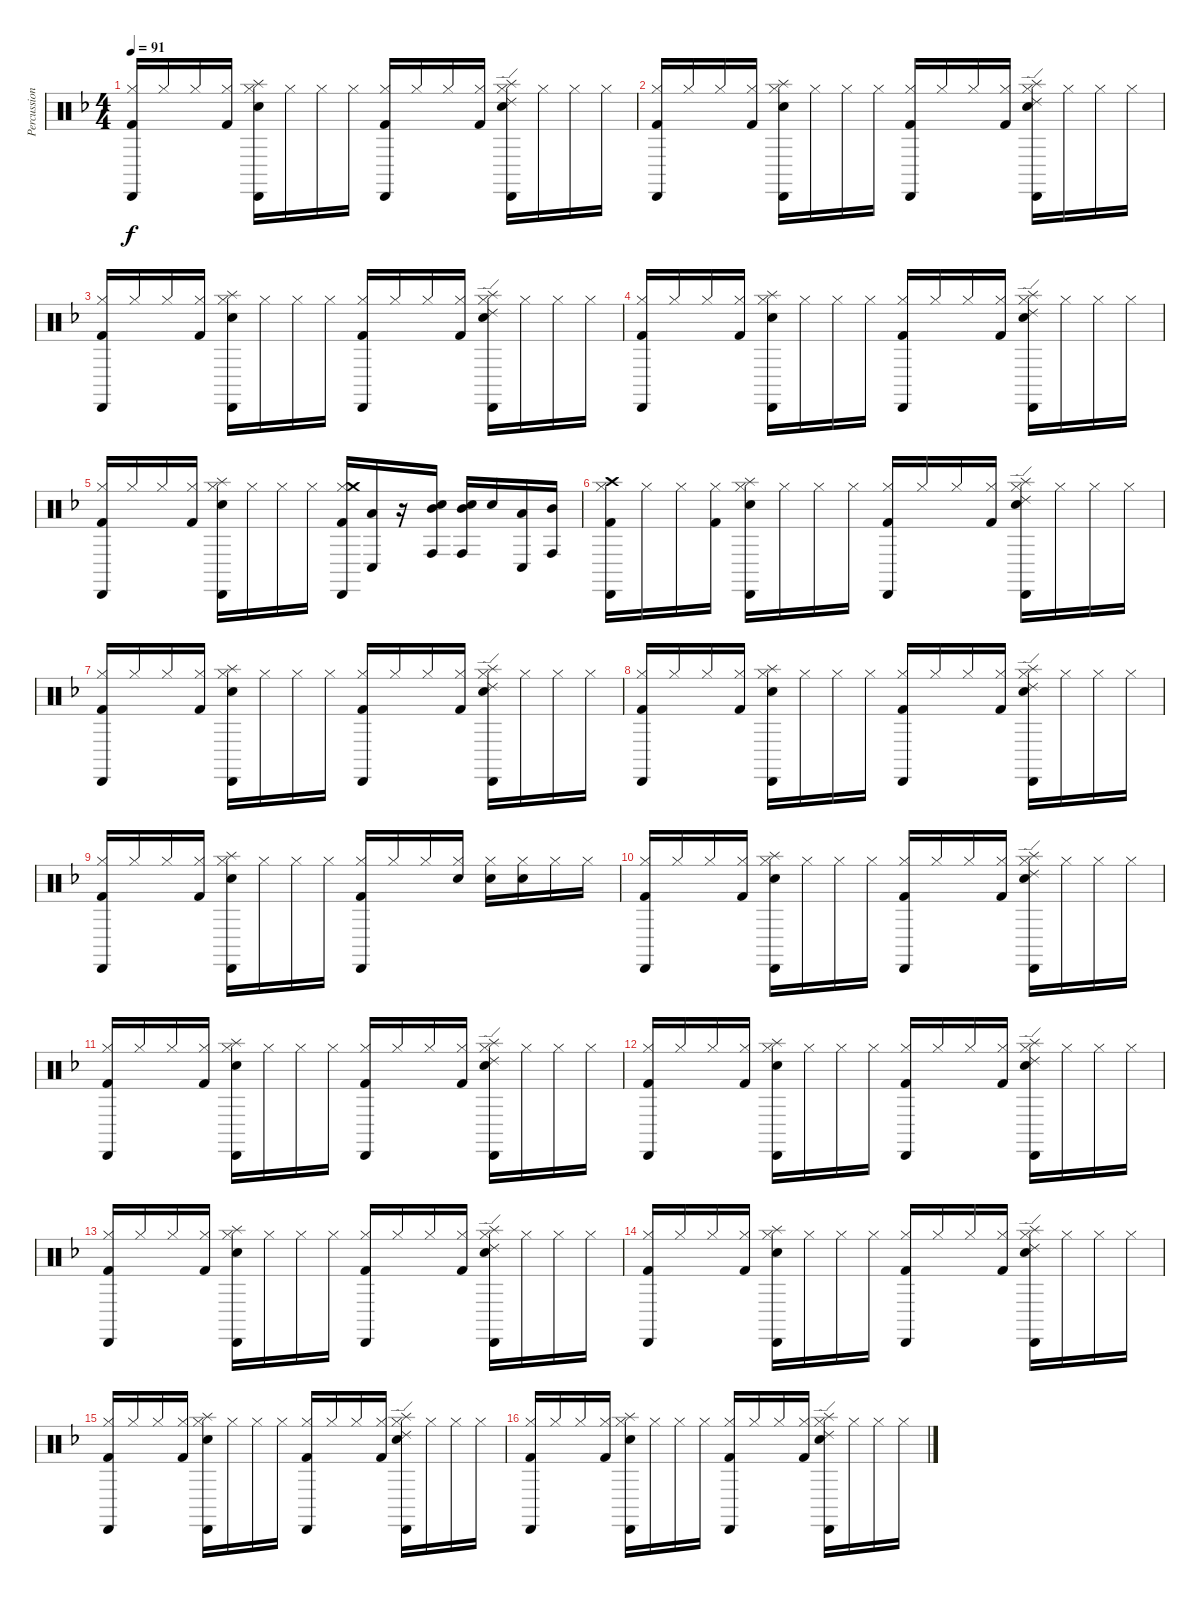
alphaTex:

\track ("Percussion" "Percussion") {instrument percussion}
\staff {score}
\articulation defaults
\ts (4 4)
\tempo 91
\clef neutral
\ks dminor
("Hi-Hat (closed)" "Kick (hit) 2" "Cabasa (hit)").16{dy f volume 12} "Hi-Hat (closed)".16 "Hi-Hat (closed)".16 ("Hi-Hat (closed)" "Kick (hit) 2").16 ("Hi-Hat (closed)" "Snare (hit) 2" "Cabasa (hit)" "Splash (hit)").16 "Hi-Hat (closed)".16 "Hi-Hat (closed)".16 "Hi-Hat (closed)".16 ("Hi-Hat (closed)" "Kick (hit) 2" "Cabasa (hit)").16 "Hi-Hat (closed)".16 "Hi-Hat (closed)".16 ("Hi-Hat (closed)" "Kick (hit) 2").16 ("Hi-Hat (closed)" "Snare (hit) 2" "Cabasa (hit)" "Ride (edge) 2" "Splash (hit)").16 "Hi-Hat (closed)".16 "Hi-Hat (closed)".16 "Hi-Hat (closed)".16 |
("Hi-Hat (closed)" "Kick (hit) 2" "Cabasa (hit)").16{volume 12} "Hi-Hat (closed)".16 "Hi-Hat (closed)".16 ("Hi-Hat (closed)" "Kick (hit) 2").16 ("Hi-Hat (closed)" "Snare (hit) 2" "Cabasa (hit)" "Splash (hit)").16 "Hi-Hat (closed)".16 "Hi-Hat (closed)".16 "Hi-Hat (closed)".16 ("Hi-Hat (closed)" "Kick (hit) 2" "Cabasa (hit)").16 "Hi-Hat (closed)".16 "Hi-Hat (closed)".16 ("Hi-Hat (closed)" "Kick (hit) 2").16 ("Hi-Hat (closed)" "Snare (hit) 2" "Cabasa (hit)" "Ride (edge) 2" "Splash (hit)").16 "Hi-Hat (closed)".16 "Hi-Hat (closed)".16 "Hi-Hat (closed)".16 |
("Hi-Hat (closed)" "Kick (hit) 2" "Cabasa (hit)").16{volume 12} "Hi-Hat (closed)".16 "Hi-Hat (closed)".16 ("Hi-Hat (closed)" "Kick (hit) 2").16 ("Hi-Hat (closed)" "Snare (hit) 2" "Cabasa (hit)" "Splash (hit)").16 "Hi-Hat (closed)".16 "Hi-Hat (closed)".16 "Hi-Hat (closed)".16 ("Hi-Hat (closed)" "Kick (hit) 2" "Cabasa (hit)").16 "Hi-Hat (closed)".16 "Hi-Hat (closed)".16 ("Hi-Hat (closed)" "Kick (hit) 2").16 ("Hi-Hat (closed)" "Snare (hit) 2" "Cabasa (hit)" "Ride (edge) 2" "Splash (hit)").16 "Hi-Hat (closed)".16 "Hi-Hat (closed)".16 "Hi-Hat (closed)".16 |
("Hi-Hat (closed)" "Kick (hit) 2" "Cabasa (hit)").16{volume 12} "Hi-Hat (closed)".16 "Hi-Hat (closed)".16 ("Hi-Hat (closed)" "Kick (hit) 2").16 ("Hi-Hat (closed)" "Snare (hit) 2" "Cabasa (hit)" "Splash (hit)").16 "Hi-Hat (closed)".16 "Hi-Hat (closed)".16 "Hi-Hat (closed)".16 ("Hi-Hat (closed)" "Kick (hit) 2" "Cabasa (hit)").16 "Hi-Hat (closed)".16 "Hi-Hat (closed)".16 ("Hi-Hat (closed)" "Kick (hit) 2").16 ("Hi-Hat (closed)" "Snare (hit) 2" "Cabasa (hit)" "Ride (edge) 2" "Splash (hit)").16 "Hi-Hat (closed)".16 "Hi-Hat (closed)".16 "Hi-Hat (closed)".16 |
("Hi-Hat (closed)" "Kick (hit) 2" "Cabasa (hit)").16{volume 12} "Hi-Hat (closed)".16 "Hi-Hat (closed)".16 ("Hi-Hat (closed)" "Kick (hit) 2").16 ("Hi-Hat (closed)" "Snare (hit) 2" "Cabasa (hit)" "Splash (hit)").16 "Hi-Hat (closed)".16 "Hi-Hat (closed)".16 "Hi-Hat (closed)".16 ("Hi-Hat (closed)" "Kick (hit) 2" "Cabasa (hit)" "Crash medium (hit)").16 ("Conga low (hit)" "Low Tom (hit)").16 r.16 ("Conga high (hit)" "Mid Tom (hit)" "Snare (hit) 2").16 ("Conga high (hit)" "Mid Tom (hit)" "Snare (hit) 2").16 "Snare (hit) 2".16 ("Conga low (hit)" "Low Tom (hit)").16 ("Conga high (hit)" "Mid Tom (hit)").16 |
("Hi-Hat (closed)" "Kick (hit) 2" "Cabasa (hit)" "Crash high (hit)").16{volume 12} "Hi-Hat (closed)".16 "Hi-Hat (closed)".16 ("Hi-Hat (closed)" "Kick (hit) 2").16 ("Hi-Hat (closed)" "Snare (hit) 2" "Cabasa (hit)" "Splash (hit)").16 "Hi-Hat (closed)".16 "Hi-Hat (closed)".16 "Hi-Hat (closed)".16 ("Hi-Hat (closed)" "Kick (hit) 2" "Cabasa (hit)").16 "Hi-Hat (closed)".16 "Hi-Hat (closed)".16 ("Hi-Hat (closed)" "Kick (hit) 2").16 ("Hi-Hat (closed)" "Snare (hit) 2" "Cabasa (hit)" "Ride (edge) 2" "Splash (hit)").16 "Hi-Hat (closed)".16 "Hi-Hat (closed)".16 "Hi-Hat (closed)".16 |
("Hi-Hat (closed)" "Kick (hit) 2" "Cabasa (hit)").16{volume 12} "Hi-Hat (closed)".16 "Hi-Hat (closed)".16 ("Hi-Hat (closed)" "Kick (hit) 2").16 ("Hi-Hat (closed)" "Snare (hit) 2" "Cabasa (hit)" "Splash (hit)").16 "Hi-Hat (closed)".16 "Hi-Hat (closed)".16 "Hi-Hat (closed)".16 ("Hi-Hat (closed)" "Kick (hit) 2" "Cabasa (hit)").16 "Hi-Hat (closed)".16 "Hi-Hat (closed)".16 ("Hi-Hat (closed)" "Kick (hit) 2").16 ("Hi-Hat (closed)" "Snare (hit) 2" "Cabasa (hit)" "Ride (edge) 2" "Splash (hit)").16 "Hi-Hat (closed)".16 "Hi-Hat (closed)".16 "Hi-Hat (closed)".16 |
("Hi-Hat (closed)" "Kick (hit) 2" "Cabasa (hit)").16{volume 12} "Hi-Hat (closed)".16 "Hi-Hat (closed)".16 ("Hi-Hat (closed)" "Kick (hit) 2").16 ("Hi-Hat (closed)" "Snare (hit) 2" "Cabasa (hit)" "Splash (hit)").16 "Hi-Hat (closed)".16 "Hi-Hat (closed)".16 "Hi-Hat (closed)".16 ("Hi-Hat (closed)" "Kick (hit) 2" "Cabasa (hit)").16 "Hi-Hat (closed)".16 "Hi-Hat (closed)".16 ("Hi-Hat (closed)" "Kick (hit) 2").16 ("Hi-Hat (closed)" "Snare (hit) 2" "Cabasa (hit)" "Ride (edge) 2" "Splash (hit)").16 "Hi-Hat (closed)".16 "Hi-Hat (closed)".16 "Hi-Hat (closed)".16 |
("Hi-Hat (closed)" "Kick (hit) 2" "Cabasa (hit)").16{volume 12} "Hi-Hat (closed)".16 "Hi-Hat (closed)".16 ("Hi-Hat (closed)" "Kick (hit) 2").16 ("Hi-Hat (closed)" "Snare (hit) 2" "Cabasa (hit)" "Splash (hit)").16 "Hi-Hat (closed)".16 "Hi-Hat (closed)".16 "Hi-Hat (closed)".16 ("Hi-Hat (closed)" "Kick (hit) 2" "Cabasa (hit)").16 "Hi-Hat (closed)".16 "Hi-Hat (closed)".16 ("Hi-Hat (closed)" "Snare (hit) 2").16 ("Hi-Hat (closed)" "Snare (hit) 2").16 ("Hi-Hat (closed)" "Snare (hit) 2").16 "Hi-Hat (closed)".16 "Hi-Hat (closed)".16 |
("Hi-Hat (closed)" "Kick (hit) 2" "Cabasa (hit)").16{volume 12} "Hi-Hat (closed)".16 "Hi-Hat (closed)".16 ("Hi-Hat (closed)" "Kick (hit) 2").16 ("Hi-Hat (closed)" "Snare (hit) 2" "Cabasa (hit)" "Splash (hit)").16 "Hi-Hat (closed)".16 "Hi-Hat (closed)".16 "Hi-Hat (closed)".16 ("Hi-Hat (closed)" "Kick (hit) 2" "Cabasa (hit)").16 "Hi-Hat (closed)".16 "Hi-Hat (closed)".16 ("Hi-Hat (closed)" "Kick (hit) 2").16 ("Hi-Hat (closed)" "Snare (hit) 2" "Cabasa (hit)" "Ride (edge) 2" "Splash (hit)").16 "Hi-Hat (closed)".16 "Hi-Hat (closed)".16 "Hi-Hat (closed)".16 |
("Hi-Hat (closed)" "Kick (hit) 2" "Cabasa (hit)").16{volume 12} "Hi-Hat (closed)".16 "Hi-Hat (closed)".16 ("Hi-Hat (closed)" "Kick (hit) 2").16 ("Hi-Hat (closed)" "Snare (hit) 2" "Cabasa (hit)" "Splash (hit)").16 "Hi-Hat (closed)".16 "Hi-Hat (closed)".16 "Hi-Hat (closed)".16 ("Hi-Hat (closed)" "Kick (hit) 2" "Cabasa (hit)").16 "Hi-Hat (closed)".16 "Hi-Hat (closed)".16 ("Hi-Hat (closed)" "Kick (hit) 2").16 ("Hi-Hat (closed)" "Snare (hit) 2" "Cabasa (hit)" "Ride (edge) 2" "Splash (hit)").16 "Hi-Hat (closed)".16 "Hi-Hat (closed)".16 "Hi-Hat (closed)".16 |
("Hi-Hat (closed)" "Kick (hit) 2" "Cabasa (hit)").16{volume 12} "Hi-Hat (closed)".16 "Hi-Hat (closed)".16 ("Hi-Hat (closed)" "Kick (hit) 2").16 ("Hi-Hat (closed)" "Snare (hit) 2" "Cabasa (hit)" "Splash (hit)").16 "Hi-Hat (closed)".16 "Hi-Hat (closed)".16 "Hi-Hat (closed)".16 ("Hi-Hat (closed)" "Kick (hit) 2" "Cabasa (hit)").16 "Hi-Hat (closed)".16 "Hi-Hat (closed)".16 ("Hi-Hat (closed)" "Kick (hit) 2").16 ("Hi-Hat (closed)" "Snare (hit) 2" "Cabasa (hit)" "Ride (edge) 2" "Splash (hit)").16 "Hi-Hat (closed)".16 "Hi-Hat (closed)".16 "Hi-Hat (closed)".16 |
("Hi-Hat (closed)" "Kick (hit) 2" "Cabasa (hit)").16{volume 12} "Hi-Hat (closed)".16 "Hi-Hat (closed)".16 ("Hi-Hat (closed)" "Kick (hit) 2").16 ("Hi-Hat (closed)" "Snare (hit) 2" "Cabasa (hit)" "Splash (hit)").16 "Hi-Hat (closed)".16 "Hi-Hat (closed)".16 "Hi-Hat (closed)".16 ("Hi-Hat (closed)" "Kick (hit) 2" "Cabasa (hit)").16 "Hi-Hat (closed)".16 "Hi-Hat (closed)".16 ("Hi-Hat (closed)" "Kick (hit) 2").16 ("Hi-Hat (closed)" "Snare (hit) 2" "Cabasa (hit)" "Ride (edge) 2" "Splash (hit)").16 "Hi-Hat (closed)".16 "Hi-Hat (closed)".16 "Hi-Hat (closed)".16 |
("Hi-Hat (closed)" "Kick (hit) 2" "Cabasa (hit)").16{volume 12} "Hi-Hat (closed)".16 "Hi-Hat (closed)".16 ("Hi-Hat (closed)" "Kick (hit) 2").16 ("Hi-Hat (closed)" "Snare (hit) 2" "Cabasa (hit)" "Splash (hit)").16 "Hi-Hat (closed)".16 "Hi-Hat (closed)".16 "Hi-Hat (closed)".16 ("Hi-Hat (closed)" "Kick (hit) 2" "Cabasa (hit)").16 "Hi-Hat (closed)".16 "Hi-Hat (closed)".16 ("Hi-Hat (closed)" "Kick (hit) 2").16 ("Hi-Hat (closed)" "Snare (hit) 2" "Cabasa (hit)" "Ride (edge) 2" "Splash (hit)").16 "Hi-Hat (closed)".16 "Hi-Hat (closed)".16 "Hi-Hat (closed)".16 |
("Hi-Hat (closed)" "Kick (hit) 2" "Cabasa (hit)").16{volume 12} "Hi-Hat (closed)".16 "Hi-Hat (closed)".16 ("Hi-Hat (closed)" "Kick (hit) 2").16 ("Hi-Hat (closed)" "Snare (hit) 2" "Cabasa (hit)" "Splash (hit)").16 "Hi-Hat (closed)".16 "Hi-Hat (closed)".16 "Hi-Hat (closed)".16 ("Hi-Hat (closed)" "Kick (hit) 2" "Cabasa (hit)").16 "Hi-Hat (closed)".16 "Hi-Hat (closed)".16 ("Hi-Hat (closed)" "Kick (hit) 2").16 ("Hi-Hat (closed)" "Snare (hit) 2" "Cabasa (hit)" "Ride (edge) 2" "Splash (hit)").16 "Hi-Hat (closed)".16 "Hi-Hat (closed)".16 "Hi-Hat (closed)".16 |
("Hi-Hat (closed)" "Kick (hit) 2" "Cabasa (hit)").16{volume 12} "Hi-Hat (closed)".16 "Hi-Hat (closed)".16 ("Hi-Hat (closed)" "Kick (hit) 2").16 ("Hi-Hat (closed)" "Snare (hit) 2" "Cabasa (hit)" "Splash (hit)").16 "Hi-Hat (closed)".16 "Hi-Hat (closed)".16 "Hi-Hat (closed)".16 ("Hi-Hat (closed)" "Kick (hit) 2" "Cabasa (hit)").16 "Hi-Hat (closed)".16 "Hi-Hat (closed)".16 ("Hi-Hat (closed)" "Kick (hit) 2").16 ("Hi-Hat (closed)" "Snare (hit) 2" "Cabasa (hit)" "Ride (edge) 2" "Splash (hit)").16 "Hi-Hat (closed)".16 "Hi-Hat (closed)".16 "Hi-Hat (closed)".16
